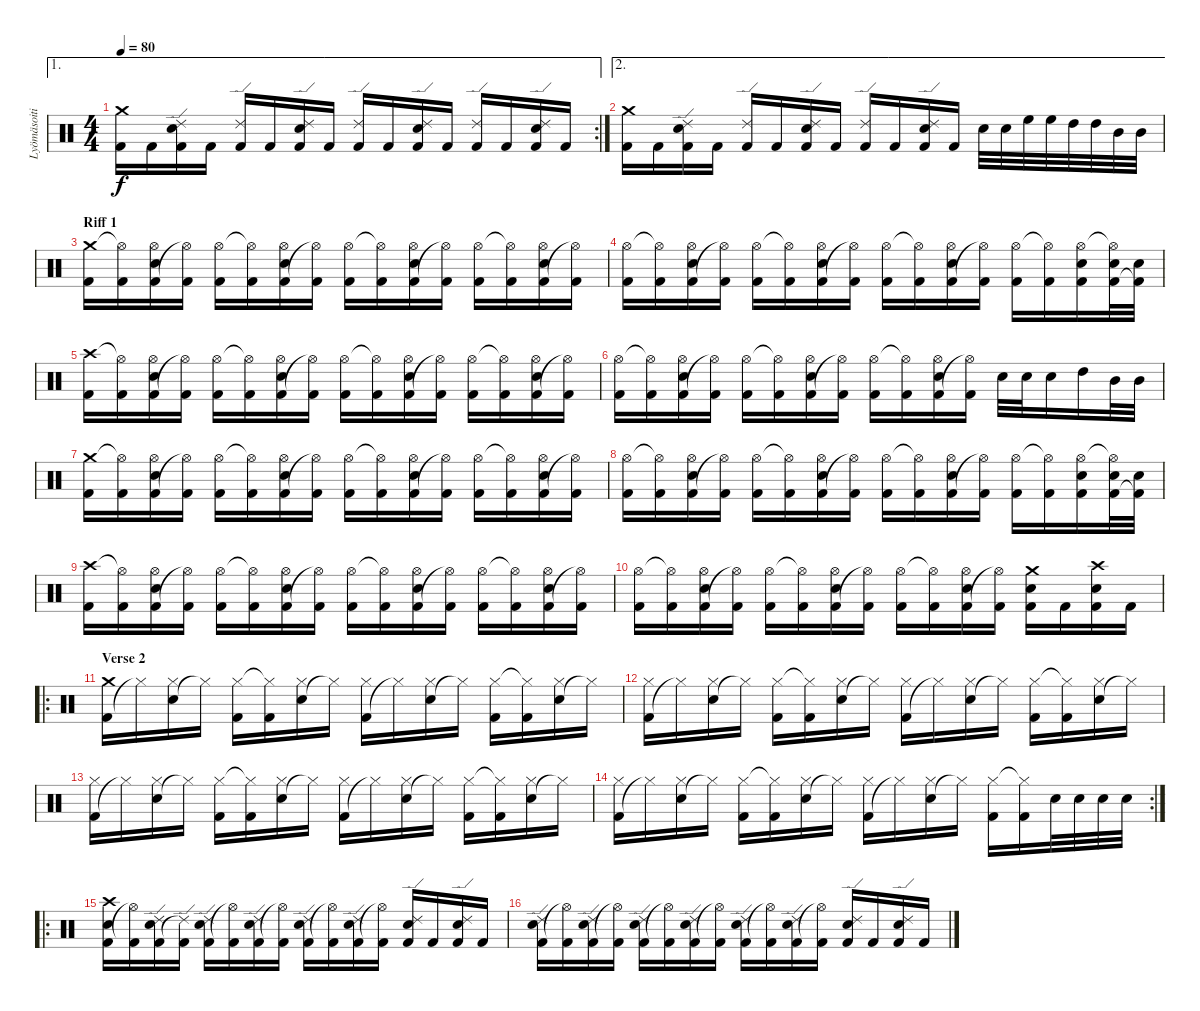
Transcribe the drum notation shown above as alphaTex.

\track ("Lyömäsoitin" "Lyömäsoiti") {instrument percussion}
\staff {score}
\articulation defaults
\ae 1
\rc 2
\ts (4 4)
\tempo 80
\clef neutral
\ks c
("Kick (hit) 2" "Crash medium (hit)").16{dy f} "Kick (hit) 2".16 ("Electric Snare (hit)" "Kick (hit) 2" "Ride (edge) 2").16 "Kick (hit) 2".16 ("Kick (hit) 2" "Ride (edge) 2").16 "Kick (hit) 2".16 ("Electric Snare (hit)" "Kick (hit) 2" "Ride (edge) 2").16 "Kick (hit) 2".16 ("Kick (hit) 2" "Ride (edge) 2").16 "Kick (hit) 2".16 ("Electric Snare (hit)" "Kick (hit) 2" "Ride (edge) 2").16 "Kick (hit) 2".16 ("Kick (hit) 2" "Ride (edge) 2").16 "Kick (hit) 2".16 ("Electric Snare (hit)" "Kick (hit) 2" "Ride (edge) 2").16 "Kick (hit) 2".16 |
\ae 2
("Kick (hit) 2" "Crash medium (hit)").16 "Kick (hit) 2".16 ("Electric Snare (hit)" "Kick (hit) 2" "Ride (edge) 2").16 "Kick (hit) 2".16 ("Kick (hit) 2" "Ride (edge) 2").16 "Kick (hit) 2".16 ("Electric Snare (hit)" "Kick (hit) 2" "Ride (edge) 2").16 "Kick (hit) 2".16 ("Kick (hit) 2" "Ride (edge) 2").16 "Kick (hit) 2".16 ("Electric Snare (hit)" "Kick (hit) 2" "Ride (edge) 2").16 "Kick (hit) 2".16 "Electric Snare (hit)".32 "Electric Snare (hit)".32 "High Floor Tom (hit)".32 "High Floor Tom (hit)".32 "High Tom (hit)".32 "High Tom (hit)".32 "Mid Tom (hit)".32 "Mid Tom (hit)".32 |
\section ("" "Riff 1")
("Kick (hit) 2" "Crash medium (hit)").16 ("Kick (hit) 2" "Hi-Hat (open)"{t}).16 ("Electric Snare (hit)" "Kick (hit) 2" "Hi-Hat (open)").16 ("Kick (hit) 2" "Hi-Hat (open)"{t}).16 ("Kick (hit) 2" "Hi-Hat (open)").16 ("Kick (hit) 2" "Hi-Hat (open)"{t}).16 ("Electric Snare (hit)" "Kick (hit) 2" "Hi-Hat (open)").16 ("Kick (hit) 2" "Hi-Hat (open)"{t}).16 ("Kick (hit) 2" "Hi-Hat (open)").16 ("Kick (hit) 2" "Hi-Hat (open)"{t}).16 ("Electric Snare (hit)" "Kick (hit) 2" "Hi-Hat (open)").16 ("Kick (hit) 2" "Hi-Hat (open)"{t}).16 ("Kick (hit) 2" "Hi-Hat (open)").16 ("Kick (hit) 2" "Hi-Hat (open)"{t}).16 ("Electric Snare (hit)" "Kick (hit) 2" "Hi-Hat (open)").16 ("Kick (hit) 2" "Hi-Hat (open)"{t}).16 |
("Kick (hit) 2" "Hi-Hat (open)").16 ("Kick (hit) 2" "Hi-Hat (open)"{t}).16 ("Electric Snare (hit)" "Kick (hit) 2" "Hi-Hat (open)").16 ("Kick (hit) 2" "Hi-Hat (open)"{t}).16 ("Kick (hit) 2" "Hi-Hat (open)").16 ("Kick (hit) 2" "Hi-Hat (open)"{t}).16 ("Electric Snare (hit)" "Kick (hit) 2" "Hi-Hat (open)").16 ("Kick (hit) 2" "Hi-Hat (open)"{t}).16 ("Kick (hit) 2" "Hi-Hat (open)").16 ("Kick (hit) 2" "Hi-Hat (open)"{t}).16 ("Electric Snare (hit)" "Kick (hit) 2" "Hi-Hat (open)").16 ("Kick (hit) 2" "Hi-Hat (open)"{t}).16 ("Kick (hit) 2" "Hi-Hat (open)").16 ("Kick (hit) 2" "Hi-Hat (open)"{t}).16 ("Electric Snare (hit)" "Kick (hit) 2" "Hi-Hat (open)").16 ("Electric Snare (hit)" "Kick (hit) 2" "Hi-Hat (open)"{t}).32 ("Electric Snare (hit)" "Kick (hit) 2"{t}).32 |
("Kick (hit) 2" "Crash high (hit)").16 ("Kick (hit) 2" "Hi-Hat (open)"{t}).16 ("Electric Snare (hit)" "Kick (hit) 2" "Hi-Hat (open)").16 ("Kick (hit) 2" "Hi-Hat (open)"{t}).16 ("Kick (hit) 2" "Hi-Hat (open)").16 ("Kick (hit) 2" "Hi-Hat (open)"{t}).16 ("Electric Snare (hit)" "Kick (hit) 2" "Hi-Hat (open)").16 ("Kick (hit) 2" "Hi-Hat (open)"{t}).16 ("Kick (hit) 2" "Hi-Hat (open)").16 ("Kick (hit) 2" "Hi-Hat (open)"{t}).16 ("Electric Snare (hit)" "Kick (hit) 2" "Hi-Hat (open)").16 ("Kick (hit) 2" "Hi-Hat (open)"{t}).16 ("Kick (hit) 2" "Hi-Hat (open)").16 ("Kick (hit) 2" "Hi-Hat (open)"{t}).16 ("Electric Snare (hit)" "Kick (hit) 2" "Hi-Hat (open)").16 ("Kick (hit) 2" "Hi-Hat (open)"{t}).16 |
("Kick (hit) 2" "Hi-Hat (open)").16 ("Kick (hit) 2" "Hi-Hat (open)"{t}).16 ("Electric Snare (hit)" "Kick (hit) 2" "Hi-Hat (open)").16 ("Kick (hit) 2" "Hi-Hat (open)"{t}).16 ("Kick (hit) 2" "Hi-Hat (open)").16 ("Kick (hit) 2" "Hi-Hat (open)"{t}).16 ("Electric Snare (hit)" "Kick (hit) 2" "Hi-Hat (open)").16 ("Kick (hit) 2" "Hi-Hat (open)"{t}).16 ("Kick (hit) 2" "Hi-Hat (open)").16 ("Kick (hit) 2" "Hi-Hat (open)"{t}).16 ("Electric Snare (hit)" "Kick (hit) 2" "Hi-Hat (open)").16 ("Kick (hit) 2" "Hi-Hat (open)"{t}).16 "Electric Snare (hit)".32 "Electric Snare (hit)".32 "Electric Snare (hit)".16 "High Tom (hit)".16 "Mid Tom (hit)".32 "Mid Tom (hit)".32 |
("Kick (hit) 2" "Crash medium (hit)").16 ("Kick (hit) 2" "Hi-Hat (open)"{t}).16 ("Electric Snare (hit)" "Kick (hit) 2" "Hi-Hat (open)").16 ("Kick (hit) 2" "Hi-Hat (open)"{t}).16 ("Kick (hit) 2" "Hi-Hat (open)").16 ("Kick (hit) 2" "Hi-Hat (open)"{t}).16 ("Electric Snare (hit)" "Kick (hit) 2" "Hi-Hat (open)").16 ("Kick (hit) 2" "Hi-Hat (open)"{t}).16 ("Kick (hit) 2" "Hi-Hat (open)").16 ("Kick (hit) 2" "Hi-Hat (open)"{t}).16 ("Electric Snare (hit)" "Kick (hit) 2" "Hi-Hat (open)").16 ("Kick (hit) 2" "Hi-Hat (open)"{t}).16 ("Kick (hit) 2" "Hi-Hat (open)").16 ("Kick (hit) 2" "Hi-Hat (open)"{t}).16 ("Electric Snare (hit)" "Kick (hit) 2" "Hi-Hat (open)").16 ("Kick (hit) 2" "Hi-Hat (open)"{t}).16 |
("Kick (hit) 2" "Hi-Hat (open)").16 ("Kick (hit) 2" "Hi-Hat (open)"{t}).16 ("Electric Snare (hit)" "Kick (hit) 2" "Hi-Hat (open)").16 ("Kick (hit) 2" "Hi-Hat (open)"{t}).16 ("Kick (hit) 2" "Hi-Hat (open)").16 ("Kick (hit) 2" "Hi-Hat (open)"{t}).16 ("Electric Snare (hit)" "Kick (hit) 2" "Hi-Hat (open)").16 ("Kick (hit) 2" "Hi-Hat (open)"{t}).16 ("Kick (hit) 2" "Hi-Hat (open)").16 ("Kick (hit) 2" "Hi-Hat (open)"{t}).16 ("Electric Snare (hit)" "Kick (hit) 2" "Hi-Hat (open)").16 ("Kick (hit) 2" "Hi-Hat (open)"{t}).16 ("Kick (hit) 2" "Hi-Hat (open)").16 ("Kick (hit) 2" "Hi-Hat (open)"{t}).16 ("Electric Snare (hit)" "Kick (hit) 2" "Hi-Hat (open)").16 ("Electric Snare (hit)" "Kick (hit) 2" "Hi-Hat (open)"{t}).32 ("Electric Snare (hit)" "Kick (hit) 2"{t}).32 |
("Kick (hit) 2" "Crash high (hit)").16 ("Kick (hit) 2" "Hi-Hat (open)"{t}).16 ("Electric Snare (hit)" "Kick (hit) 2" "Hi-Hat (open)").16 ("Kick (hit) 2" "Hi-Hat (open)"{t}).16 ("Kick (hit) 2" "Hi-Hat (open)").16 ("Kick (hit) 2" "Hi-Hat (open)"{t}).16 ("Electric Snare (hit)" "Kick (hit) 2" "Hi-Hat (open)").16 ("Kick (hit) 2" "Hi-Hat (open)"{t}).16 ("Kick (hit) 2" "Hi-Hat (open)").16 ("Kick (hit) 2" "Hi-Hat (open)"{t}).16 ("Electric Snare (hit)" "Kick (hit) 2" "Hi-Hat (open)").16 ("Kick (hit) 2" "Hi-Hat (open)"{t}).16 ("Kick (hit) 2" "Hi-Hat (open)").16 ("Kick (hit) 2" "Hi-Hat (open)"{t}).16 ("Electric Snare (hit)" "Kick (hit) 2" "Hi-Hat (open)").16 ("Kick (hit) 2" "Hi-Hat (open)"{t}).16 |
("Kick (hit) 2" "Hi-Hat (open)").16 ("Kick (hit) 2" "Hi-Hat (open)"{t}).16 ("Electric Snare (hit)" "Kick (hit) 2" "Hi-Hat (open)").16 ("Kick (hit) 2" "Hi-Hat (open)"{t}).16 ("Kick (hit) 2" "Hi-Hat (open)").16 ("Kick (hit) 2" "Hi-Hat (open)"{t}).16 ("Electric Snare (hit)" "Kick (hit) 2" "Hi-Hat (open)").16 ("Kick (hit) 2" "Hi-Hat (open)"{t}).16 ("Kick (hit) 2" "Hi-Hat (open)").16 ("Kick (hit) 2" "Hi-Hat (open)"{t}).16 ("Electric Snare (hit)" "Kick (hit) 2" "Hi-Hat (open)").16 ("Kick (hit) 2" "Hi-Hat (open)"{t}).16 ("Electric Snare (hit)" "Kick (hit) 2" "Crash medium (hit)").16 "Kick (hit) 2".16 ("Electric Snare (hit)" "Kick (hit) 2" "Crash high (hit)").16 "Kick (hit) 2".16 |
\ro
\section ("" "Verse 2")
("Kick (hit) 2" "Crash medium (hit)").16 "Hi-Hat (closed)"{t}.16 ("Electric Snare (hit)" "Hi-Hat (closed)").16 "Hi-Hat (closed)"{t}.16 ("Kick (hit) 2" "Hi-Hat (closed)").16 ("Kick (hit) 2" "Hi-Hat (closed)"{t}).16 ("Electric Snare (hit)" "Hi-Hat (closed)").16 "Hi-Hat (closed)"{t}.16 ("Kick (hit) 2" "Hi-Hat (closed)").16 "Hi-Hat (closed)"{t}.16 ("Electric Snare (hit)" "Hi-Hat (closed)").16 "Hi-Hat (closed)"{t}.16 ("Kick (hit) 2" "Hi-Hat (closed)").16 ("Kick (hit) 2" "Hi-Hat (closed)"{t}).16 ("Electric Snare (hit)" "Hi-Hat (closed)").16 "Hi-Hat (closed)"{t}.16 |
("Kick (hit) 2" "Hi-Hat (closed)").16 "Hi-Hat (closed)"{t}.16 ("Electric Snare (hit)" "Hi-Hat (closed)").16 "Hi-Hat (closed)"{t}.16 ("Kick (hit) 2" "Hi-Hat (closed)").16 ("Kick (hit) 2" "Hi-Hat (closed)"{t}).16 ("Electric Snare (hit)" "Hi-Hat (closed)").16 "Hi-Hat (closed)"{t}.16 ("Kick (hit) 2" "Hi-Hat (closed)").16 "Hi-Hat (closed)"{t}.16 ("Electric Snare (hit)" "Hi-Hat (closed)").16 "Hi-Hat (closed)"{t}.16 ("Kick (hit) 2" "Hi-Hat (closed)").16 ("Kick (hit) 2" "Hi-Hat (closed)"{t}).16 ("Electric Snare (hit)" "Hi-Hat (closed)").16 "Hi-Hat (closed)"{t}.16 |
("Kick (hit) 2" "Hi-Hat (closed)").16 "Hi-Hat (closed)"{t}.16 ("Electric Snare (hit)" "Hi-Hat (closed)").16 "Hi-Hat (closed)"{t}.16 ("Kick (hit) 2" "Hi-Hat (closed)").16 ("Kick (hit) 2" "Hi-Hat (closed)"{t}).16 ("Electric Snare (hit)" "Hi-Hat (closed)").16 "Hi-Hat (closed)"{t}.16 ("Kick (hit) 2" "Hi-Hat (closed)").16 "Hi-Hat (closed)"{t}.16 ("Electric Snare (hit)" "Hi-Hat (closed)").16 "Hi-Hat (closed)"{t}.16 ("Kick (hit) 2" "Hi-Hat (closed)").16 ("Kick (hit) 2" "Hi-Hat (closed)"{t}).16 ("Electric Snare (hit)" "Hi-Hat (closed)").16 "Hi-Hat (closed)"{t}.16 |
\rc 2
("Kick (hit) 2" "Hi-Hat (closed)").16 "Hi-Hat (closed)"{t}.16 ("Electric Snare (hit)" "Hi-Hat (closed)").16 "Hi-Hat (closed)"{t}.16 ("Kick (hit) 2" "Hi-Hat (closed)").16 ("Kick (hit) 2" "Hi-Hat (closed)"{t}).16 ("Electric Snare (hit)" "Hi-Hat (closed)").16 "Hi-Hat (closed)"{t}.16 ("Kick (hit) 2" "Hi-Hat (closed)").16 "Hi-Hat (closed)"{t}.16 ("Electric Snare (hit)" "Hi-Hat (closed)").16 "Hi-Hat (closed)"{t}.16 ("Kick (hit) 2" "Hi-Hat (closed)").16 ("Kick (hit) 2" "Hi-Hat (closed)"{t}).16 "Electric Snare (hit)".32 "Electric Snare (hit)".32 "Electric Snare (hit)".32 "Electric Snare (hit)".32 |
\ro
("Electric Snare (hit)" "Kick (hit) 2" "Crash high (hit)").16 ("Kick (hit) 2" "Hi-Hat (open)"{t}).16 ("Electric Snare (hit)" "Kick (hit) 2" "Ride (edge) 2").16 ("Kick (hit) 2" "Ride (edge) 2"{t}).16 ("Electric Snare (hit)" "Kick (hit) 2" "Ride (edge) 2").16 ("Kick (hit) 2" "Hi-Hat (open)"{t}).16 ("Electric Snare (hit)" "Kick (hit) 2" "Ride (edge) 2").16 ("Kick (hit) 2" "Hi-Hat (open)"{t}).16 ("Electric Snare (hit)" "Kick (hit) 2" "Ride (edge) 2").16 ("Kick (hit) 2" "Hi-Hat (open)"{t}).16 ("Electric Snare (hit)" "Kick (hit) 2" "Ride (edge) 2").16 ("Kick (hit) 2" "Hi-Hat (open)"{t}).16 ("Electric Snare (hit)" "Kick (hit) 2" "Ride (edge) 2").16 "Kick (hit) 2".16 ("Electric Snare (hit)" "Kick (hit) 2" "Ride (edge) 2").16 "Kick (hit) 2".16 |
("Electric Snare (hit)" "Kick (hit) 2" "Ride (edge) 2").16 ("Kick (hit) 2" "Hi-Hat (open)"{t}).16 ("Electric Snare (hit)" "Kick (hit) 2" "Ride (edge) 2").16 ("Kick (hit) 2" "Hi-Hat (open)"{t}).16 ("Electric Snare (hit)" "Kick (hit) 2" "Ride (edge) 2").16 ("Kick (hit) 2" "Hi-Hat (open)"{t}).16 ("Electric Snare (hit)" "Kick (hit) 2" "Ride (edge) 2").16 ("Kick (hit) 2" "Hi-Hat (open)"{t}).16 ("Electric Snare (hit)" "Kick (hit) 2" "Ride (edge) 2").16 ("Kick (hit) 2" "Hi-Hat (open)"{t}).16 ("Electric Snare (hit)" "Kick (hit) 2" "Ride (edge) 2").16 ("Kick (hit) 2" "Hi-Hat (open)"{t}).16 ("Electric Snare (hit)" "Kick (hit) 2" "Ride (edge) 2").16 "Kick (hit) 2".16 ("Electric Snare (hit)" "Kick (hit) 2" "Ride (edge) 2").16 "Kick (hit) 2".16
